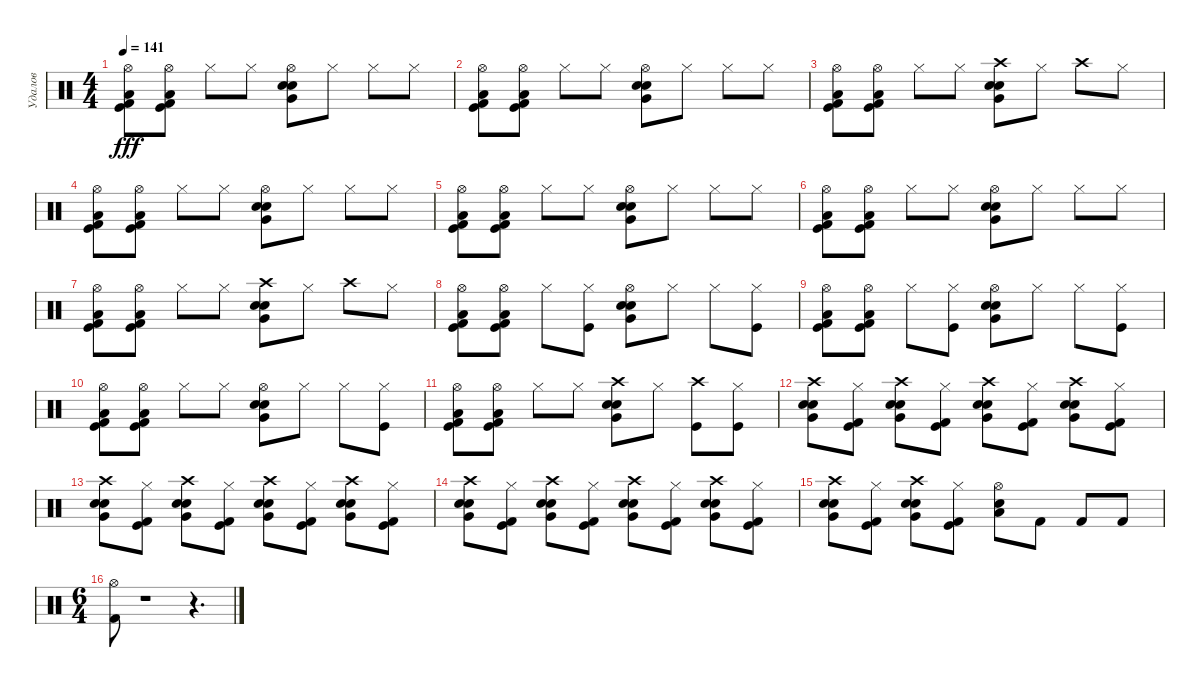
\track ("Удалов" "Удалов") {instrument percussion}
\staff {score}
\articulation defaults
\ts (4 4)
\tempo 141
\clef neutral
\ks c
("Hi-Hat (open)" "Low Floor Tom (hit)" "Kick (hit)" "Kick (hit) 2").8{dy fff} ("Hi-Hat (open)" "Low Floor Tom (hit)" "Kick (hit)" "Kick (hit) 2").8 "Hi-Hat (closed)".8 "Hi-Hat (closed)".8 ("Hi-Hat (open)" "Very Low Tom (hit)" "Snare (hit) 2" "Electric Snare (hit)").8 "Hi-Hat (closed)".8 "Hi-Hat (closed)".8 "Hi-Hat (closed)".8 |
("Hi-Hat (open)" "Low Floor Tom (hit)" "Kick (hit)" "Kick (hit) 2").8 ("Hi-Hat (open)" "Low Floor Tom (hit)" "Kick (hit)" "Kick (hit) 2").8 "Hi-Hat (closed)".8 "Hi-Hat (closed)".8 ("Hi-Hat (open)" "Very Low Tom (hit)" "Snare (hit) 2" "Electric Snare (hit)").8 "Hi-Hat (closed)".8 "Hi-Hat (closed)".8 "Hi-Hat (closed)".8 |
("Hi-Hat (open)" "Low Floor Tom (hit)" "Kick (hit)" "Kick (hit) 2").8 ("Hi-Hat (open)" "Low Floor Tom (hit)" "Kick (hit)" "Kick (hit) 2").8 "Hi-Hat (closed)".8 "Hi-Hat (closed)".8 ("Crash high (hit)" "Very Low Tom (hit)" "Snare (hit) 2" "Electric Snare (hit)").8 "Hi-Hat (closed)".8 "Crash high (hit)".8 "Hi-Hat (closed)".8 |
("Hi-Hat (open)" "Low Floor Tom (hit)" "Kick (hit)" "Kick (hit) 2").8 ("Hi-Hat (open)" "Low Floor Tom (hit)" "Kick (hit)" "Kick (hit) 2").8 "Hi-Hat (closed)".8 "Hi-Hat (closed)".8 ("Hi-Hat (open)" "Very Low Tom (hit)" "Snare (hit) 2" "Electric Snare (hit)").8 "Hi-Hat (closed)".8 "Hi-Hat (closed)".8 "Hi-Hat (closed)".8 |
("Hi-Hat (open)" "Low Floor Tom (hit)" "Kick (hit)" "Kick (hit) 2").8 ("Hi-Hat (open)" "Low Floor Tom (hit)" "Kick (hit)" "Kick (hit) 2").8 "Hi-Hat (closed)".8 "Hi-Hat (closed)".8 ("Hi-Hat (open)" "Very Low Tom (hit)" "Snare (hit) 2" "Electric Snare (hit)").8 "Hi-Hat (closed)".8 "Hi-Hat (closed)".8 "Hi-Hat (closed)".8 |
("Hi-Hat (open)" "Low Floor Tom (hit)" "Kick (hit)" "Kick (hit) 2").8 ("Hi-Hat (open)" "Low Floor Tom (hit)" "Kick (hit)" "Kick (hit) 2").8 "Hi-Hat (closed)".8 "Hi-Hat (closed)".8 ("Hi-Hat (open)" "Very Low Tom (hit)" "Snare (hit) 2" "Electric Snare (hit)").8 "Hi-Hat (closed)".8 "Hi-Hat (closed)".8 "Hi-Hat (closed)".8 |
("Hi-Hat (open)" "Low Floor Tom (hit)" "Kick (hit)" "Kick (hit) 2").8 ("Hi-Hat (open)" "Low Floor Tom (hit)" "Kick (hit)" "Kick (hit) 2").8 "Hi-Hat (closed)".8 "Hi-Hat (closed)".8 ("Crash high (hit)" "Very Low Tom (hit)" "Snare (hit) 2" "Electric Snare (hit)").8 "Hi-Hat (closed)".8 "Crash high (hit)".8 "Hi-Hat (closed)".8 |
("Hi-Hat (open)" "Low Floor Tom (hit)" "Kick (hit)" "Kick (hit) 2").8 ("Hi-Hat (open)" "Low Floor Tom (hit)" "Kick (hit)" "Kick (hit) 2").8 "Hi-Hat (closed)".8 ("Kick (hit)" "Hi-Hat (closed)").8 ("Hi-Hat (open)" "Very Low Tom (hit)" "Snare (hit) 2" "Electric Snare (hit)").8 "Hi-Hat (closed)".8 "Hi-Hat (closed)".8 ("Kick (hit)" "Hi-Hat (closed)").8 |
("Hi-Hat (open)" "Low Floor Tom (hit)" "Kick (hit)" "Kick (hit) 2").8 ("Hi-Hat (open)" "Low Floor Tom (hit)" "Kick (hit)" "Kick (hit) 2").8 "Hi-Hat (closed)".8 ("Kick (hit)" "Hi-Hat (closed)").8 ("Hi-Hat (open)" "Very Low Tom (hit)" "Snare (hit) 2" "Electric Snare (hit)").8 "Hi-Hat (closed)".8 "Hi-Hat (closed)".8 ("Kick (hit)" "Hi-Hat (closed)").8 |
("Hi-Hat (open)" "Low Floor Tom (hit)" "Kick (hit)" "Kick (hit) 2").8 ("Hi-Hat (open)" "Low Floor Tom (hit)" "Kick (hit)" "Kick (hit) 2").8 "Hi-Hat (closed)".8 "Hi-Hat (closed)".8 ("Hi-Hat (open)" "Very Low Tom (hit)" "Snare (hit) 2" "Electric Snare (hit)").8 "Hi-Hat (closed)".8 "Hi-Hat (closed)".8 ("Kick (hit)" "Hi-Hat (closed)").8 |
("Hi-Hat (open)" "Low Floor Tom (hit)" "Kick (hit)" "Kick (hit) 2").8 ("Hi-Hat (open)" "Low Floor Tom (hit)" "Kick (hit)" "Kick (hit) 2").8 "Hi-Hat (closed)".8 "Hi-Hat (closed)".8 ("Crash high (hit)" "Very Low Tom (hit)" "Snare (hit) 2" "Electric Snare (hit)").8 "Hi-Hat (closed)".8 ("Kick (hit)" "Crash high (hit)").8 ("Kick (hit)" "Hi-Hat (closed)").8 |
("Crash high (hit)" "Very Low Tom (hit)" "Snare (hit) 2" "Electric Snare (hit)").8 ("Kick (hit) 2" "Kick (hit)" "Hi-Hat (closed)").8 ("Very Low Tom (hit)" "Electric Snare (hit)" "Snare (hit) 2" "Crash high (hit)").8 ("Kick (hit)" "Kick (hit) 2" "Hi-Hat (closed)").8 ("Crash high (hit)" "Very Low Tom (hit)" "Snare (hit) 2" "Electric Snare (hit)").8 ("Kick (hit) 2" "Kick (hit)" "Hi-Hat (closed)").8 ("Very Low Tom (hit)" "Electric Snare (hit)" "Snare (hit) 2" "Crash high (hit)").8 ("Kick (hit)" "Kick (hit) 2" "Hi-Hat (closed)").8 |
("Crash high (hit)" "Very Low Tom (hit)" "Snare (hit) 2" "Electric Snare (hit)").8 ("Kick (hit) 2" "Kick (hit)" "Hi-Hat (closed)").8 ("Very Low Tom (hit)" "Electric Snare (hit)" "Snare (hit) 2" "Crash high (hit)").8 ("Kick (hit)" "Kick (hit) 2" "Hi-Hat (closed)").8 ("Crash high (hit)" "Very Low Tom (hit)" "Snare (hit) 2" "Electric Snare (hit)").8 ("Kick (hit) 2" "Kick (hit)" "Hi-Hat (closed)").8 ("Very Low Tom (hit)" "Electric Snare (hit)" "Snare (hit) 2" "Crash high (hit)").8 ("Kick (hit)" "Kick (hit) 2" "Hi-Hat (closed)").8 |
("Crash high (hit)" "Very Low Tom (hit)" "Snare (hit) 2" "Electric Snare (hit)").8 ("Kick (hit) 2" "Kick (hit)" "Hi-Hat (closed)").8 ("Very Low Tom (hit)" "Electric Snare (hit)" "Snare (hit) 2" "Crash high (hit)").8 ("Kick (hit)" "Kick (hit) 2" "Hi-Hat (closed)").8 ("Crash high (hit)" "Very Low Tom (hit)" "Snare (hit) 2" "Electric Snare (hit)").8 ("Kick (hit) 2" "Kick (hit)" "Hi-Hat (closed)").8 ("Very Low Tom (hit)" "Electric Snare (hit)" "Snare (hit) 2" "Crash high (hit)").8 ("Kick (hit)" "Kick (hit) 2" "Hi-Hat (closed)").8 |
("Crash high (hit)" "Very Low Tom (hit)" "Snare (hit) 2" "Electric Snare (hit)").8 ("Kick (hit) 2" "Kick (hit)" "Hi-Hat (closed)").8 ("Very Low Tom (hit)" "Electric Snare (hit)" "Snare (hit) 2" "Crash high (hit)").8 ("Kick (hit)" "Kick (hit) 2" "Hi-Hat (closed)").8 ("Hi-Hat (open)" "Low Tom (hit)" "Snare (hit) 2").8 "Kick (hit) 2".8 "Kick (hit) 2".8 "Kick (hit) 2".8 |
\ts (6 4)
("Hi-Hat (open)" "Kick (hit) 2").8 r.1 r.4{d}
